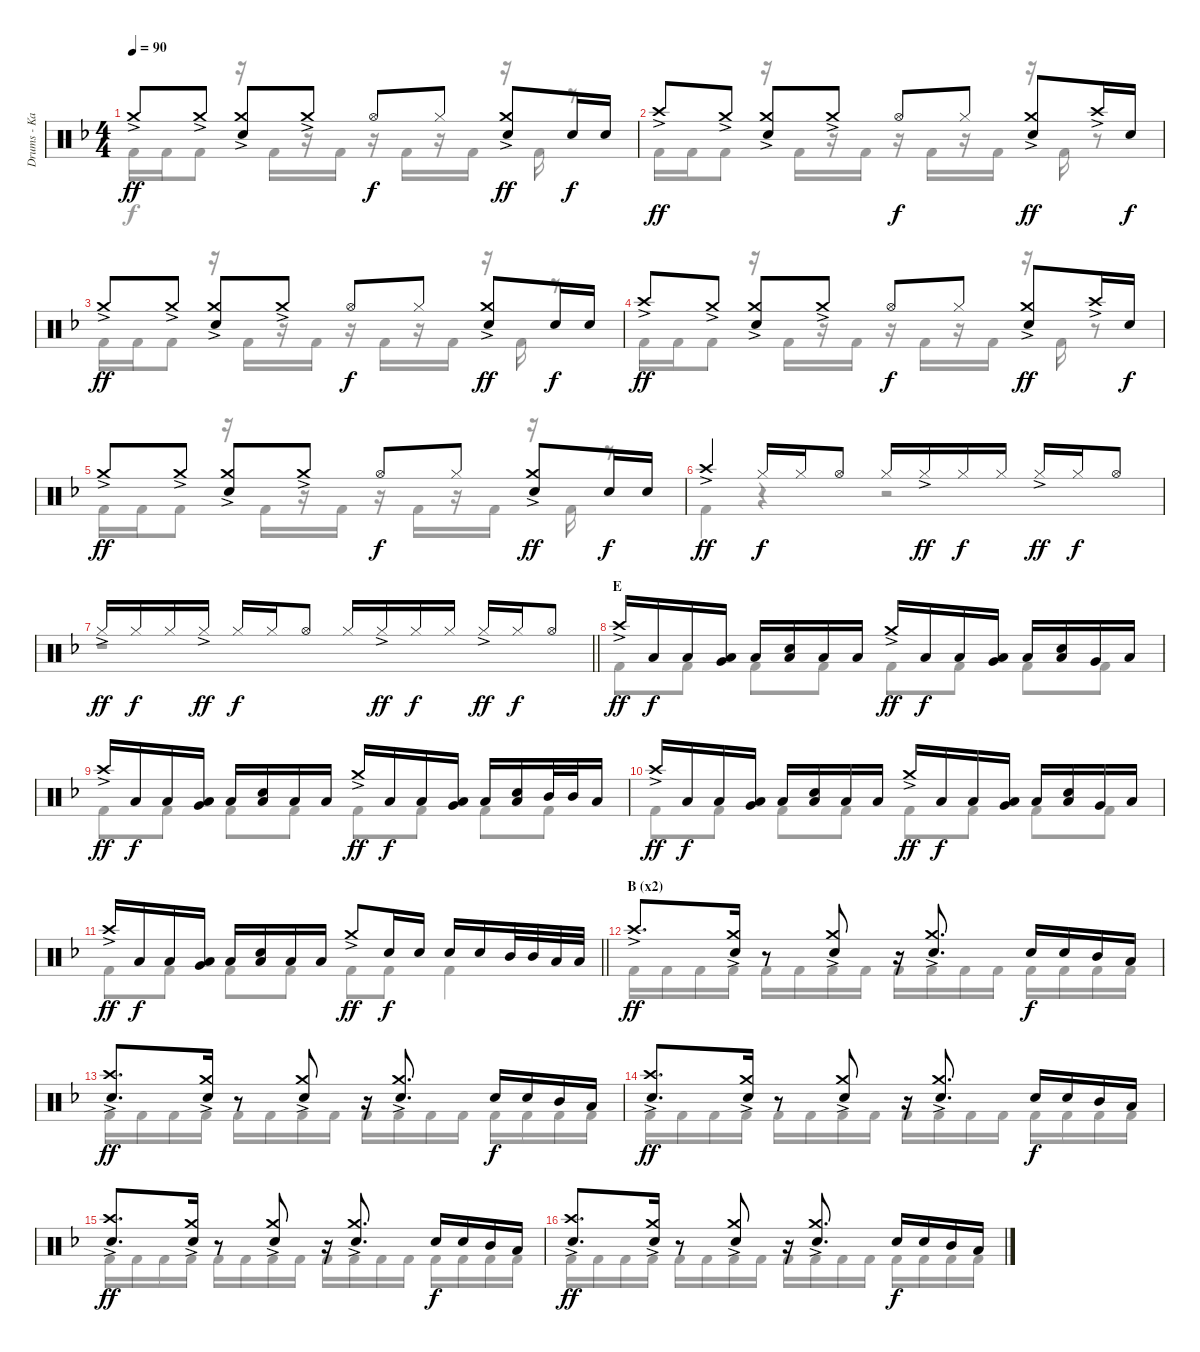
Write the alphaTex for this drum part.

\track ("Drums - Kai" "Drums - Ka") {instrument percussion}
\staff {score}
\articulation defaults
\voice
\ts (4 4)
\tempo 90
\clef neutral
\ks f "Crash medium (hit)"{ac}.8{dy ff} "Crash medium (hit)"{ac}.8
("Crash medium (hit)"{ac} "Snare (hit) 2").8 "Crash medium (hit)"{ac}.8 "Hi-Hat (open)".8{dy f} "Hi-Hat (closed)".8 ("Crash medium (hit)"{ac} "Snare (hit) 2").8{dy ff} "Snare (hit) 2".16{dy f} "Snare (hit) 2".16 |
"Crash high (hit)"{ac}.8{dy ff} "Crash medium (hit)"{ac}.8 ("Crash medium (hit)"{ac} "Snare (hit) 2").8 "Crash medium (hit)"{ac}.8 "Hi-Hat (open)".8{dy f} "Hi-Hat (closed)".8 ("Crash medium (hit)"{ac} "Snare (hit) 2").8{dy ff} "Crash high (hit)"{ac}.16 "Snare (hit) 2".16{dy f} |
"Crash medium (hit)"{ac}.8{dy ff} "Crash medium (hit)"{ac}.8 ("Crash medium (hit)"{ac} "Snare (hit) 2").8 "Crash medium (hit)"{ac}.8 "Hi-Hat (open)".8{dy f} "Hi-Hat (closed)".8 ("Crash medium (hit)"{ac} "Snare (hit) 2").8{dy ff} "Snare (hit) 2".16{dy f} "Snare (hit) 2".16 |
"Crash high (hit)"{ac}.8{dy ff} "Crash medium (hit)"{ac}.8 ("Crash medium (hit)"{ac} "Snare (hit) 2").8 "Crash medium (hit)"{ac}.8 "Hi-Hat (open)".8{dy f} "Hi-Hat (closed)".8 ("Crash medium (hit)"{ac} "Snare (hit) 2").8{dy ff} "Crash high (hit)"{ac}.16 "Snare (hit) 2".16{dy f} |
"Crash medium (hit)"{ac}.8{dy ff} "Crash medium (hit)"{ac}.8 ("Crash medium (hit)"{ac} "Snare (hit) 2").8 "Crash medium (hit)"{ac}.8 "Hi-Hat (open)".8{dy f} "Hi-Hat (closed)".8 ("Crash medium (hit)"{ac} "Snare (hit) 2").8{dy ff} "Snare (hit) 2".16{dy f} "Snare (hit) 2".16 |
"Crash high (hit)"{ac}.4{dy ff} "Hi-Hat (closed)".16{dy f} "Hi-Hat (closed)".16 "Hi-Hat (open)".8 "Hi-Hat (closed)".16 "Hi-Hat (closed)"{ac}.16{dy ff} "Hi-Hat (closed)".16{dy f} "Hi-Hat (closed)".16 "Hi-Hat (closed)"{ac}.16{dy ff} "Hi-Hat (closed)".16{dy f} "Hi-Hat (open)".8 |
\barLineRight lightlight "Hi-Hat (closed)"{ac}.16{dy ff} "Hi-Hat (closed)".16{dy f} "Hi-Hat (closed)".16 "Hi-Hat (closed)"{ac}.16{dy ff} "Hi-Hat (closed)".16{dy f} "Hi-Hat (closed)".16 "Hi-Hat (open)".8 "Hi-Hat (closed)".16 "Hi-Hat (closed)"{ac}.16{dy ff} "Hi-Hat (closed)".16{dy f} "Hi-Hat (closed)".16 "Hi-Hat (closed)"{ac}.16{dy ff} "Hi-Hat (closed)".16{dy f} "Hi-Hat (open)".8
|
\section ("" "E")
"Crash high (hit)"{ac}.16{dy ff} "Low Floor Tom (hit)".16{dy f} "Low Floor Tom (hit)".16 ("Very Low Tom (hit)" "Low Floor Tom (hit)").16 "Low Floor Tom (hit)".16 ("Low Floor Tom (hit)" "Snare (hit) 2").16 "Low Floor Tom (hit)".16 "Low Floor Tom (hit)".16 "Crash medium (hit)"{ac}.16{dy ff} "Low Floor Tom (hit)".16{dy f} "Low Floor Tom (hit)".16 ("Very Low Tom (hit)" "Low Floor Tom (hit)").16 "Low Floor Tom (hit)".16 ("Low Floor Tom (hit)" "Snare (hit) 2").16 "Very Low Tom (hit)".16 "Low Floor Tom (hit)".16 |
"Crash high (hit)"{ac}.16{dy ff} "Low Floor Tom (hit)".16{dy f} "Low Floor Tom (hit)".16 ("Very Low Tom (hit)" "Low Floor Tom (hit)").16 "Low Floor Tom (hit)".16 ("Low Floor Tom (hit)" "Snare (hit) 2").16 "Low Floor Tom (hit)".16 "Low Floor Tom (hit)".16 "Crash medium (hit)"{ac}.16{dy ff} "Low Floor Tom (hit)".16{dy f} "Low Floor Tom (hit)".16 ("Very Low Tom (hit)" "Low Floor Tom (hit)").16 "Low Floor Tom (hit)".16 ("Low Floor Tom (hit)" "Snare (hit) 2").16 "Mid Tom (hit)".32 "Mid Tom (hit)".32 "Low Tom (hit)".16 |
"Crash high (hit)"{ac}.16{dy ff} "Low Floor Tom (hit)".16{dy f} "Low Floor Tom (hit)".16 ("Very Low Tom (hit)" "Low Floor Tom (hit)").16 "Low Floor Tom (hit)".16 ("Low Floor Tom (hit)" "Snare (hit) 2").16 "Low Floor Tom (hit)".16 "Low Floor Tom (hit)".16 "Crash medium (hit)"{ac}.16{dy ff} "Low Floor Tom (hit)".16{dy f} "Low Floor Tom (hit)".16 ("Very Low Tom (hit)" "Low Floor Tom (hit)").16 "Low Floor Tom (hit)".16 ("Low Floor Tom (hit)" "Snare (hit) 2").16 "Very Low Tom (hit)".16 "Low Floor Tom (hit)".16 |
\barLineRight lightlight "Crash high (hit)"{ac}.16{dy ff} "Low Floor Tom (hit)".16{dy f} "Low Floor Tom (hit)".16
("Very Low Tom (hit)" "Low Floor Tom (hit)").16 "Low Floor Tom (hit)".16 ("Low Floor Tom (hit)" "Snare (hit) 2").16 "Low Floor Tom (hit)".16 "Low Floor Tom (hit)".16 "Crash medium (hit)"{ac}.8{dy ff} "Snare (hit) 2".16{dy f} "Snare (hit) 2".16 "Snare (hit) 2".16 "Snare (hit) 2".16 "Mid Tom (hit)".32 "Mid Tom (hit)".32 "Low Tom (hit)".32 "Low Tom (hit)".32 |
\section ("" "B (x2)")
"Crash high (hit)"{ac}.8{d dy ff} ("Crash medium (hit)"{ac} "Snare (hit) 2").16 r.8 ("Crash medium (hit)"{ac} "Snare (hit) 2").8 r.16 ("Crash medium (hit)"{ac} "Snare (hit) 2").8{d} "Snare (hit) 2".16{dy f} "Snare (hit) 2".16 "Mid Tom (hit)".16 "Low Tom (hit)".16 |
("Crash high (hit)"{ac} "Snare (hit) 2").8{d dy ff} ("Crash medium (hit)"{ac} "Snare (hit) 2").16 r.8 ("Crash medium (hit)"{ac} "Snare (hit) 2").8 r.16 ("Crash medium (hit)"{ac} "Snare (hit) 2").8{d} "Snare (hit) 2".16{dy f} "Snare (hit) 2".16 "Mid Tom (hit)".16 "Low Tom (hit)".16 |
("Crash high (hit)"{ac} "Snare (hit) 2").8{d dy ff} ("Crash medium (hit)"{ac} "Snare (hit) 2").16 r.8 ("Crash medium (hit)"{ac} "Snare (hit) 2").8 r.16 ("Crash medium (hit)"{ac} "Snare (hit) 2").8{d} "Snare (hit) 2".16{dy f} "Snare (hit) 2".16 "Mid Tom (hit)".16 "Low Tom (hit)".16 |
("Crash high (hit)"{ac} "Snare (hit) 2").8{d dy ff} ("Crash medium (hit)"{ac} "Snare (hit) 2").16 r.8 ("Crash medium (hit)"{ac} "Snare (hit) 2").8 r.16 ("Crash medium (hit)"{ac} "Snare (hit) 2").8{d} "Snare (hit) 2".16{dy f} "Snare (hit) 2".16 "Mid Tom (hit)".16 "Low Tom (hit)".16 |
("Crash high (hit)"{ac} "Snare (hit) 2").8{d dy ff} ("Crash medium (hit)"{ac} "Snare (hit) 2").16 r.8 ("Crash medium (hit)"{ac} "Snare (hit) 2").8 r.16 ("Crash medium (hit)"{ac} "Snare (hit) 2").8{d} "Snare (hit) 2".16{dy f} "Snare (hit) 2".16 "Mid Tom (hit)".16 "Low Tom (hit)".16
\voice
\clef neutral
\ottava regular
\simile none
\ks f "Kick (hit) 2".16{dy f} "Kick (hit) 2".16 "Kick (hit) 2".8
r.16 "Kick (hit) 2".16 r.16 "Kick (hit) 2".16 r.16 "Kick (hit) 2".16 r.16 "Kick (hit) 2".16 r.16 "Kick (hit) 2".16 r.8 |
"Kick (hit) 2".16 "Kick (hit) 2".16 "Kick (hit) 2".8 r.16 "Kick (hit) 2".16 r.16 "Kick (hit) 2".16 r.16 "Kick (hit) 2".16 r.16 "Kick (hit) 2".16 r.16 "Kick (hit) 2".16 r.8 |
"Kick (hit) 2".16 "Kick (hit) 2".16 "Kick (hit) 2".8 r.16 "Kick (hit) 2".16 r.16 "Kick (hit) 2".16 r.16 "Kick (hit) 2".16 r.16 "Kick (hit) 2".16 r.16 "Kick (hit) 2".16 r.8 |
"Kick (hit) 2".16 "Kick (hit) 2".16 "Kick (hit) 2".8 r.16 "Kick (hit) 2".16 r.16 "Kick (hit) 2".16 r.16 "Kick (hit) 2".16 r.16 "Kick (hit) 2".16 r.16 "Kick (hit) 2".16 r.8 |
"Kick (hit) 2".16 "Kick (hit) 2".16 "Kick (hit) 2".8 r.16 "Kick (hit) 2".16 r.16 "Kick (hit) 2".16 r.16 "Kick (hit) 2".16 r.16 "Kick (hit) 2".16 r.16 "Kick (hit) 2".16 r.8 |
"Kick (hit) 2".4 r.4 r.2 |
\barLineRight lightlight
r.1 |
"Kick (hit) 2".8 "Kick (hit) 2".8 "Kick (hit) 2".8 "Kick (hit) 2".8 "Kick (hit) 2".8 "Kick (hit) 2".8 "Kick (hit) 2".8 "Kick (hit) 2".8 |
"Kick (hit) 2".8 "Kick (hit) 2".8 "Kick (hit) 2".8 "Kick (hit) 2".8 "Kick (hit) 2".8 "Kick (hit) 2".8 "Kick (hit) 2".8 "Kick (hit) 2".8 |
"Kick (hit) 2".8 "Kick (hit) 2".8 "Kick (hit) 2".8 "Kick (hit) 2".8 "Kick (hit) 2".8 "Kick (hit) 2".8 "Kick (hit) 2".8 "Kick (hit) 2".8 |
\barLineRight lightlight "Kick (hit) 2".8 "Kick (hit) 2".8 "Kick (hit) 2".8 "Kick (hit) 2".8 "Kick (hit) 2".8 "Kick (hit) 2".8 "Kick (hit) 2".4
|
"Kick (hit) 2".16 "Kick (hit) 2".16 "Kick (hit) 2".16 "Kick (hit) 2".16 "Kick (hit) 2".16 "Kick (hit) 2".16 "Kick (hit) 2".16 "Kick (hit) 2".16 "Kick (hit) 2".16 "Kick (hit) 2".16 "Kick (hit) 2".16 "Kick (hit) 2".16 "Kick (hit) 2".16 "Kick (hit) 2".16 "Kick (hit) 2".16 "Kick (hit) 2".16 |
"Kick (hit) 2".16 "Kick (hit) 2".16 "Kick (hit) 2".16 "Kick (hit) 2".16 "Kick (hit) 2".16 "Kick (hit) 2".16 "Kick (hit) 2".16 "Kick (hit) 2".16 "Kick (hit) 2".16 "Kick (hit) 2".16 "Kick (hit) 2".16 "Kick (hit) 2".16 "Kick (hit) 2".16 "Kick (hit) 2".16 "Kick (hit) 2".16 "Kick (hit) 2".16 |
"Kick (hit) 2".16 "Kick (hit) 2".16 "Kick (hit) 2".16 "Kick (hit) 2".16 "Kick (hit) 2".16 "Kick (hit) 2".16 "Kick (hit) 2".16 "Kick (hit) 2".16 "Kick (hit) 2".16 "Kick (hit) 2".16 "Kick (hit) 2".16 "Kick (hit) 2".16 "Kick (hit) 2".16 "Kick (hit) 2".16 "Kick (hit) 2".16 "Kick (hit) 2".16 |
"Kick (hit) 2".16 "Kick (hit) 2".16 "Kick (hit) 2".16 "Kick (hit) 2".16 "Kick (hit) 2".16 "Kick (hit) 2".16 "Kick (hit) 2".16 "Kick (hit) 2".16 "Kick (hit) 2".16 "Kick (hit) 2".16 "Kick (hit) 2".16 "Kick (hit) 2".16 "Kick (hit) 2".16 "Kick (hit) 2".16 "Kick (hit) 2".16 "Kick (hit) 2".16 |
"Kick (hit) 2".16 "Kick (hit) 2".16 "Kick (hit) 2".16 "Kick (hit) 2".16 "Kick (hit) 2".16 "Kick (hit) 2".16 "Kick (hit) 2".16 "Kick (hit) 2".16 "Kick (hit) 2".16 "Kick (hit) 2".16 "Kick (hit) 2".16 "Kick (hit) 2".16 "Kick (hit) 2".16 "Kick (hit) 2".16 "Kick (hit) 2".16 "Kick (hit) 2".16
